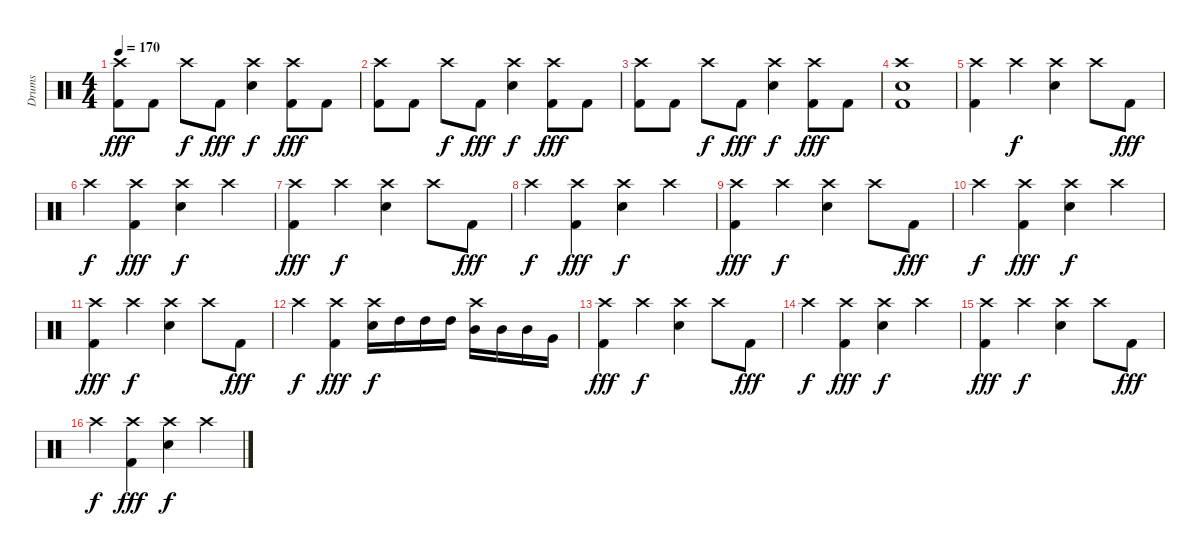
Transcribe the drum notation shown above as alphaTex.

\track ("Drums" "Drums") {instrument percussion}
\staff {score}
\articulation defaults
\ts (4 4)
\tempo 170
\clef neutral
\ks c
("Crash high (hit)" "Kick (hit) 2").8{dy fff} "Kick (hit) 2".8 "Crash high (hit)".8{dy f} "Kick (hit) 2".8{dy fff} ("Crash high (hit)" "Electric Snare (hit)").4{dy f} ("Crash high (hit)" "Kick (hit) 2").8{dy fff} "Kick (hit) 2".8 |
("Crash high (hit)" "Kick (hit) 2").8 "Kick (hit) 2".8 "Crash high (hit)".8{dy f} "Kick (hit) 2".8{dy fff} ("Crash high (hit)" "Electric Snare (hit)").4{dy f} ("Crash high (hit)" "Kick (hit) 2").8{dy fff} "Kick (hit) 2".8 |
("Crash high (hit)" "Kick (hit) 2").8 "Kick (hit) 2".8 "Crash high (hit)".8{dy f} "Kick (hit) 2".8{dy fff} ("Crash high (hit)" "Electric Snare (hit)").4{dy f} ("Crash high (hit)" "Kick (hit) 2").8{dy fff} "Kick (hit) 2".8 |
("Crash high (hit)" "Electric Snare (hit)" "Kick (hit) 2").1 |
("Crash high (hit)" "Kick (hit) 2").4 "Crash high (hit)".4{dy f} ("Crash high (hit)" "Electric Snare (hit)").4 "Crash high (hit)".8 "Kick (hit) 2".8{dy fff} |
"Crash high (hit)".4{dy f} ("Crash high (hit)" "Kick (hit) 2").4{dy fff} ("Crash high (hit)" "Electric Snare (hit)").4{dy f} "Crash high (hit)".4 |
("Crash high (hit)" "Kick (hit) 2").4{dy fff} "Crash high (hit)".4{dy f} ("Crash high (hit)" "Electric Snare (hit)").4 "Crash high (hit)".8 "Kick (hit) 2".8{dy fff} |
"Crash high (hit)".4{dy f} ("Crash high (hit)" "Kick (hit) 2").4{dy fff} ("Crash high (hit)" "Electric Snare (hit)").4{dy f} "Crash high (hit)".4 |
("Crash high (hit)" "Kick (hit) 2").4{dy fff} "Crash high (hit)".4{dy f} ("Crash high (hit)" "Electric Snare (hit)").4 "Crash high (hit)".8 "Kick (hit) 2".8{dy fff} |
"Crash high (hit)".4{dy f} ("Crash high (hit)" "Kick (hit) 2").4{dy fff} ("Crash high (hit)" "Electric Snare (hit)").4{dy f} "Crash high (hit)".4 |
("Crash high (hit)" "Kick (hit) 2").4{dy fff} "Crash high (hit)".4{dy f} ("Crash high (hit)" "Electric Snare (hit)").4 "Crash high (hit)".8 "Kick (hit) 2".8{dy fff} |
"Crash high (hit)".4{dy f} ("Crash high (hit)" "Kick (hit) 2").4{dy fff} ("Crash high (hit)" "Electric Snare (hit)").16{dy f} "High Tom (hit)".16 "High Tom (hit)".16 "High Tom (hit)".16 ("Crash high (hit)" "Mid Tom (hit)").16 "Mid Tom (hit)".16 "Mid Tom (hit)".16 "Very Low Tom (hit)".16 |
("Crash high (hit)" "Kick (hit) 2").4{dy fff} "Crash high (hit)".4{dy f} ("Crash high (hit)" "Electric Snare (hit)").4 "Crash high (hit)".8 "Kick (hit) 2".8{dy fff} |
"Crash high (hit)".4{dy f} ("Crash high (hit)" "Kick (hit) 2").4{dy fff} ("Crash high (hit)" "Electric Snare (hit)").4{dy f} "Crash high (hit)".4 |
("Crash high (hit)" "Kick (hit) 2").4{dy fff} "Crash high (hit)".4{dy f} ("Crash high (hit)" "Electric Snare (hit)").4 "Crash high (hit)".8 "Kick (hit) 2".8{dy fff} |
"Crash high (hit)".4{dy f} ("Crash high (hit)" "Kick (hit) 2").4{dy fff} ("Crash high (hit)" "Electric Snare (hit)").4{dy f} "Crash high (hit)".4
